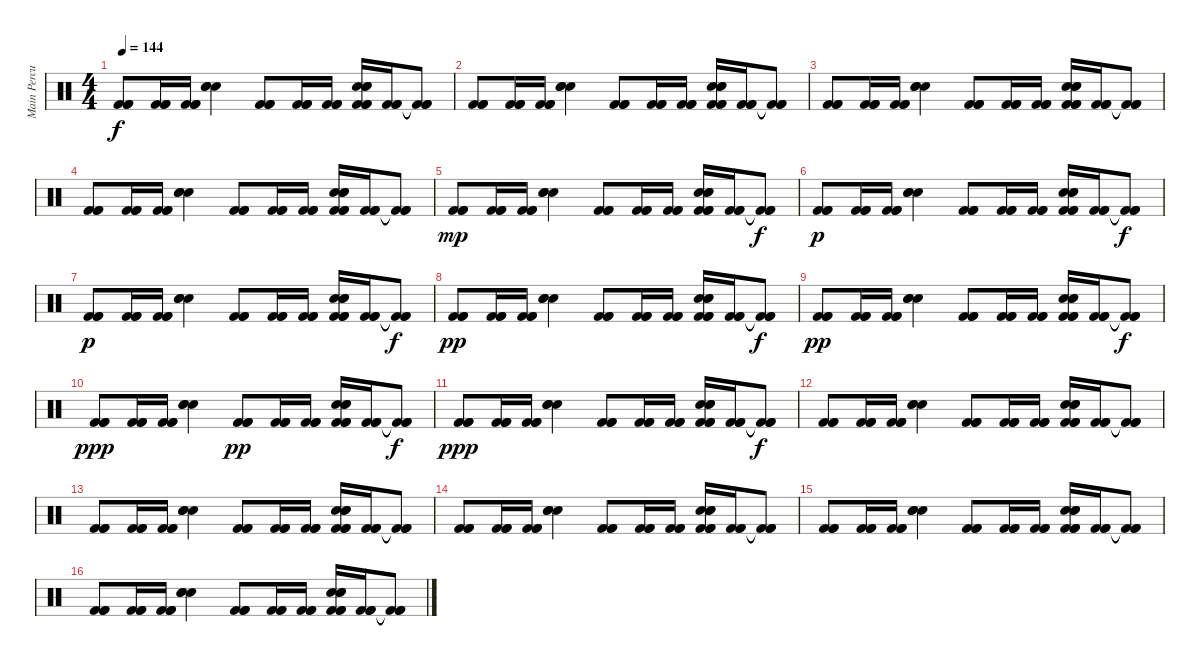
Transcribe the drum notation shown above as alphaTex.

\track ("Main Percussion" "Main Percu") {instrument percussion}
\staff {score}
\articulation defaults
\ts (4 4)
\tempo 144
\clef neutral
\ks c
("Kick (hit) 2" "Kick (hit) 2" "Kick (hit) 2").8{dy f} ("Kick (hit) 2" "Kick (hit) 2" "Kick (hit) 2").16 ("Kick (hit) 2" "Kick (hit) 2" "Kick (hit) 2").16 ("Electric Snare (hit)" "Electric Snare (hit)" "Electric Snare (hit)").4 ("Kick (hit) 2" "Kick (hit) 2" "Kick (hit) 2").8 ("Kick (hit) 2" "Kick (hit) 2" "Kick (hit) 2").16 ("Kick (hit) 2" "Kick (hit) 2" "Kick (hit) 2").16 ("Snare (hit) 2" "Snare (hit) 2" "Snare (hit) 2" "Kick (hit) 2" "Kick (hit) 2" "Kick (hit) 2").16 ("Kick (hit) 2" "Kick (hit) 2" "Kick (hit) 2").16 ("Kick (hit) 2"{t} "Kick (hit) 2"{t} "Kick (hit) 2"{t}).8 |
("Kick (hit) 2" "Kick (hit) 2" "Kick (hit) 2").8 ("Kick (hit) 2" "Kick (hit) 2" "Kick (hit) 2").16 ("Kick (hit) 2" "Kick (hit) 2" "Kick (hit) 2").16 ("Electric Snare (hit)" "Electric Snare (hit)" "Electric Snare (hit)").4 ("Kick (hit) 2" "Kick (hit) 2" "Kick (hit) 2").8 ("Kick (hit) 2" "Kick (hit) 2" "Kick (hit) 2").16 ("Kick (hit) 2" "Kick (hit) 2" "Kick (hit) 2").16 ("Snare (hit) 2" "Snare (hit) 2" "Snare (hit) 2" "Kick (hit) 2" "Kick (hit) 2" "Kick (hit) 2").16 ("Kick (hit) 2" "Kick (hit) 2" "Kick (hit) 2").16 ("Kick (hit) 2"{t} "Kick (hit) 2"{t} "Kick (hit) 2"{t}).8 |
("Kick (hit) 2" "Kick (hit) 2" "Kick (hit) 2").8 ("Kick (hit) 2" "Kick (hit) 2" "Kick (hit) 2").16 ("Kick (hit) 2" "Kick (hit) 2" "Kick (hit) 2").16 ("Electric Snare (hit)" "Electric Snare (hit)" "Electric Snare (hit)").4 ("Kick (hit) 2" "Kick (hit) 2" "Kick (hit) 2").8 ("Kick (hit) 2" "Kick (hit) 2" "Kick (hit) 2").16 ("Kick (hit) 2" "Kick (hit) 2" "Kick (hit) 2").16 ("Snare (hit) 2" "Snare (hit) 2" "Snare (hit) 2" "Kick (hit) 2" "Kick (hit) 2" "Kick (hit) 2").16 ("Kick (hit) 2" "Kick (hit) 2" "Kick (hit) 2").16 ("Kick (hit) 2"{t} "Kick (hit) 2"{t} "Kick (hit) 2"{t}).8 |
("Kick (hit) 2" "Kick (hit) 2" "Kick (hit) 2").8 ("Kick (hit) 2" "Kick (hit) 2" "Kick (hit) 2").16 ("Kick (hit) 2" "Kick (hit) 2" "Kick (hit) 2").16 ("Electric Snare (hit)" "Electric Snare (hit)" "Electric Snare (hit)").4 ("Kick (hit) 2" "Kick (hit) 2" "Kick (hit) 2").8 ("Kick (hit) 2" "Kick (hit) 2" "Kick (hit) 2").16 ("Kick (hit) 2" "Kick (hit) 2" "Kick (hit) 2").16 ("Snare (hit) 2" "Snare (hit) 2" "Snare (hit) 2" "Kick (hit) 2" "Kick (hit) 2" "Kick (hit) 2").16 ("Kick (hit) 2" "Kick (hit) 2" "Kick (hit) 2").16 ("Kick (hit) 2"{t} "Kick (hit) 2"{t} "Kick (hit) 2"{t}).8 |
("Kick (hit) 2" "Kick (hit) 2" "Kick (hit) 2").8{dy mp} ("Kick (hit) 2" "Kick (hit) 2" "Kick (hit) 2").16 ("Kick (hit) 2" "Kick (hit) 2" "Kick (hit) 2").16 ("Electric Snare (hit)" "Electric Snare (hit)" "Electric Snare (hit)").4 ("Kick (hit) 2" "Kick (hit) 2" "Kick (hit) 2").8 ("Kick (hit) 2" "Kick (hit) 2" "Kick (hit) 2").16 ("Kick (hit) 2" "Kick (hit) 2" "Kick (hit) 2").16 ("Snare (hit) 2" "Snare (hit) 2" "Snare (hit) 2" "Kick (hit) 2" "Kick (hit) 2" "Kick (hit) 2").16 ("Kick (hit) 2" "Kick (hit) 2" "Kick (hit) 2").16 ("Kick (hit) 2"{t} "Kick (hit) 2"{t} "Kick (hit) 2"{t}).8{dy f} |
("Kick (hit) 2" "Kick (hit) 2" "Kick (hit) 2").8{dy p} ("Kick (hit) 2" "Kick (hit) 2" "Kick (hit) 2").16 ("Kick (hit) 2" "Kick (hit) 2" "Kick (hit) 2").16 ("Electric Snare (hit)" "Electric Snare (hit)" "Electric Snare (hit)").4 ("Kick (hit) 2" "Kick (hit) 2" "Kick (hit) 2").8 ("Kick (hit) 2" "Kick (hit) 2" "Kick (hit) 2").16 ("Kick (hit) 2" "Kick (hit) 2" "Kick (hit) 2").16 ("Snare (hit) 2" "Snare (hit) 2" "Snare (hit) 2" "Kick (hit) 2" "Kick (hit) 2" "Kick (hit) 2").16 ("Kick (hit) 2" "Kick (hit) 2" "Kick (hit) 2").16 ("Kick (hit) 2"{t} "Kick (hit) 2"{t} "Kick (hit) 2"{t}).8{dy f} |
("Kick (hit) 2" "Kick (hit) 2" "Kick (hit) 2").8{dy p} ("Kick (hit) 2" "Kick (hit) 2" "Kick (hit) 2").16 ("Kick (hit) 2" "Kick (hit) 2" "Kick (hit) 2").16 ("Electric Snare (hit)" "Electric Snare (hit)" "Electric Snare (hit)").4 ("Kick (hit) 2" "Kick (hit) 2" "Kick (hit) 2").8 ("Kick (hit) 2" "Kick (hit) 2" "Kick (hit) 2").16 ("Kick (hit) 2" "Kick (hit) 2" "Kick (hit) 2").16 ("Snare (hit) 2" "Snare (hit) 2" "Snare (hit) 2" "Kick (hit) 2" "Kick (hit) 2" "Kick (hit) 2").16 ("Kick (hit) 2" "Kick (hit) 2" "Kick (hit) 2").16 ("Kick (hit) 2"{t} "Kick (hit) 2"{t} "Kick (hit) 2"{t}).8{dy f} |
("Kick (hit) 2" "Kick (hit) 2" "Kick (hit) 2").8{dy pp} ("Kick (hit) 2" "Kick (hit) 2" "Kick (hit) 2").16 ("Kick (hit) 2" "Kick (hit) 2" "Kick (hit) 2").16 ("Electric Snare (hit)" "Electric Snare (hit)" "Electric Snare (hit)").4 ("Kick (hit) 2" "Kick (hit) 2" "Kick (hit) 2").8 ("Kick (hit) 2" "Kick (hit) 2" "Kick (hit) 2").16 ("Kick (hit) 2" "Kick (hit) 2" "Kick (hit) 2").16 ("Snare (hit) 2" "Snare (hit) 2" "Snare (hit) 2" "Kick (hit) 2" "Kick (hit) 2" "Kick (hit) 2").16 ("Kick (hit) 2" "Kick (hit) 2" "Kick (hit) 2").16 ("Kick (hit) 2"{t} "Kick (hit) 2"{t} "Kick (hit) 2"{t}).8{dy f} |
("Kick (hit) 2" "Kick (hit) 2" "Kick (hit) 2").8{dy pp} ("Kick (hit) 2" "Kick (hit) 2" "Kick (hit) 2").16 ("Kick (hit) 2" "Kick (hit) 2" "Kick (hit) 2").16 ("Electric Snare (hit)" "Electric Snare (hit)" "Electric Snare (hit)").4 ("Kick (hit) 2" "Kick (hit) 2" "Kick (hit) 2").8 ("Kick (hit) 2" "Kick (hit) 2" "Kick (hit) 2").16 ("Kick (hit) 2" "Kick (hit) 2" "Kick (hit) 2").16 ("Snare (hit) 2" "Snare (hit) 2" "Snare (hit) 2" "Kick (hit) 2" "Kick (hit) 2" "Kick (hit) 2").16 ("Kick (hit) 2" "Kick (hit) 2" "Kick (hit) 2").16 ("Kick (hit) 2"{t} "Kick (hit) 2"{t} "Kick (hit) 2"{t}).8{dy f} |
("Kick (hit) 2" "Kick (hit) 2" "Kick (hit) 2").8{dy ppp} ("Kick (hit) 2" "Kick (hit) 2" "Kick (hit) 2").16 ("Kick (hit) 2" "Kick (hit) 2" "Kick (hit) 2").16 ("Electric Snare (hit)" "Electric Snare (hit)" "Electric Snare (hit)").4 ("Kick (hit) 2" "Kick (hit) 2" "Kick (hit) 2").8{dy pp} ("Kick (hit) 2" "Kick (hit) 2" "Kick (hit) 2").16 ("Kick (hit) 2" "Kick (hit) 2" "Kick (hit) 2").16 ("Snare (hit) 2" "Snare (hit) 2" "Snare (hit) 2" "Kick (hit) 2" "Kick (hit) 2" "Kick (hit) 2").16 ("Kick (hit) 2" "Kick (hit) 2" "Kick (hit) 2").16 ("Kick (hit) 2"{t} "Kick (hit) 2"{t} "Kick (hit) 2"{t}).8{dy f} |
("Kick (hit) 2" "Kick (hit) 2" "Kick (hit) 2").8{dy ppp} ("Kick (hit) 2" "Kick (hit) 2" "Kick (hit) 2").16 ("Kick (hit) 2" "Kick (hit) 2" "Kick (hit) 2").16 ("Electric Snare (hit)" "Electric Snare (hit)" "Electric Snare (hit)").4 ("Kick (hit) 2" "Kick (hit) 2" "Kick (hit) 2").8 ("Kick (hit) 2" "Kick (hit) 2" "Kick (hit) 2").16 ("Kick (hit) 2" "Kick (hit) 2" "Kick (hit) 2").16 ("Snare (hit) 2" "Snare (hit) 2" "Snare (hit) 2" "Kick (hit) 2" "Kick (hit) 2" "Kick (hit) 2").16 ("Kick (hit) 2" "Kick (hit) 2" "Kick (hit) 2").16 ("Kick (hit) 2"{t} "Kick (hit) 2"{t} "Kick (hit) 2"{t}).8{dy f} |
("Kick (hit) 2" "Kick (hit) 2" "Kick (hit) 2").8 ("Kick (hit) 2" "Kick (hit) 2" "Kick (hit) 2").16 ("Kick (hit) 2" "Kick (hit) 2" "Kick (hit) 2").16 ("Electric Snare (hit)" "Electric Snare (hit)" "Electric Snare (hit)").4 ("Kick (hit) 2" "Kick (hit) 2" "Kick (hit) 2").8 ("Kick (hit) 2" "Kick (hit) 2" "Kick (hit) 2").16 ("Kick (hit) 2" "Kick (hit) 2" "Kick (hit) 2").16 ("Snare (hit) 2" "Snare (hit) 2" "Snare (hit) 2" "Kick (hit) 2" "Kick (hit) 2" "Kick (hit) 2").16 ("Kick (hit) 2" "Kick (hit) 2" "Kick (hit) 2").16 ("Kick (hit) 2"{t} "Kick (hit) 2"{t} "Kick (hit) 2"{t}).8 |
("Kick (hit) 2" "Kick (hit) 2" "Kick (hit) 2").8 ("Kick (hit) 2" "Kick (hit) 2" "Kick (hit) 2").16 ("Kick (hit) 2" "Kick (hit) 2" "Kick (hit) 2").16 ("Electric Snare (hit)" "Electric Snare (hit)" "Electric Snare (hit)").4 ("Kick (hit) 2" "Kick (hit) 2" "Kick (hit) 2").8 ("Kick (hit) 2" "Kick (hit) 2" "Kick (hit) 2").16 ("Kick (hit) 2" "Kick (hit) 2" "Kick (hit) 2").16 ("Snare (hit) 2" "Snare (hit) 2" "Snare (hit) 2" "Kick (hit) 2" "Kick (hit) 2" "Kick (hit) 2").16 ("Kick (hit) 2" "Kick (hit) 2" "Kick (hit) 2").16 ("Kick (hit) 2"{t} "Kick (hit) 2"{t} "Kick (hit) 2"{t}).8 |
("Kick (hit) 2" "Kick (hit) 2" "Kick (hit) 2").8 ("Kick (hit) 2" "Kick (hit) 2" "Kick (hit) 2").16 ("Kick (hit) 2" "Kick (hit) 2" "Kick (hit) 2").16 ("Electric Snare (hit)" "Electric Snare (hit)" "Electric Snare (hit)").4 ("Kick (hit) 2" "Kick (hit) 2" "Kick (hit) 2").8 ("Kick (hit) 2" "Kick (hit) 2" "Kick (hit) 2").16 ("Kick (hit) 2" "Kick (hit) 2" "Kick (hit) 2").16 ("Snare (hit) 2" "Snare (hit) 2" "Snare (hit) 2" "Kick (hit) 2" "Kick (hit) 2" "Kick (hit) 2").16 ("Kick (hit) 2" "Kick (hit) 2" "Kick (hit) 2").16 ("Kick (hit) 2"{t} "Kick (hit) 2"{t} "Kick (hit) 2"{t}).8 |
("Kick (hit) 2" "Kick (hit) 2" "Kick (hit) 2").8 ("Kick (hit) 2" "Kick (hit) 2" "Kick (hit) 2").16 ("Kick (hit) 2" "Kick (hit) 2" "Kick (hit) 2").16 ("Electric Snare (hit)" "Electric Snare (hit)" "Electric Snare (hit)").4 ("Kick (hit) 2" "Kick (hit) 2" "Kick (hit) 2").8 ("Kick (hit) 2" "Kick (hit) 2" "Kick (hit) 2").16 ("Kick (hit) 2" "Kick (hit) 2" "Kick (hit) 2").16 ("Snare (hit) 2" "Snare (hit) 2" "Snare (hit) 2" "Kick (hit) 2" "Kick (hit) 2" "Kick (hit) 2").16 ("Kick (hit) 2" "Kick (hit) 2" "Kick (hit) 2").16 ("Kick (hit) 2"{t} "Kick (hit) 2"{t} "Kick (hit) 2"{t}).8 |
("Kick (hit) 2" "Kick (hit) 2" "Kick (hit) 2").8 ("Kick (hit) 2" "Kick (hit) 2" "Kick (hit) 2").16 ("Kick (hit) 2" "Kick (hit) 2" "Kick (hit) 2").16 ("Electric Snare (hit)" "Electric Snare (hit)" "Electric Snare (hit)").4 ("Kick (hit) 2" "Kick (hit) 2" "Kick (hit) 2").8 ("Kick (hit) 2" "Kick (hit) 2" "Kick (hit) 2").16 ("Kick (hit) 2" "Kick (hit) 2" "Kick (hit) 2").16 ("Snare (hit) 2" "Snare (hit) 2" "Snare (hit) 2" "Kick (hit) 2" "Kick (hit) 2" "Kick (hit) 2").16 ("Kick (hit) 2" "Kick (hit) 2" "Kick (hit) 2").16 ("Kick (hit) 2"{t} "Kick (hit) 2"{t} "Kick (hit) 2"{t}).8
